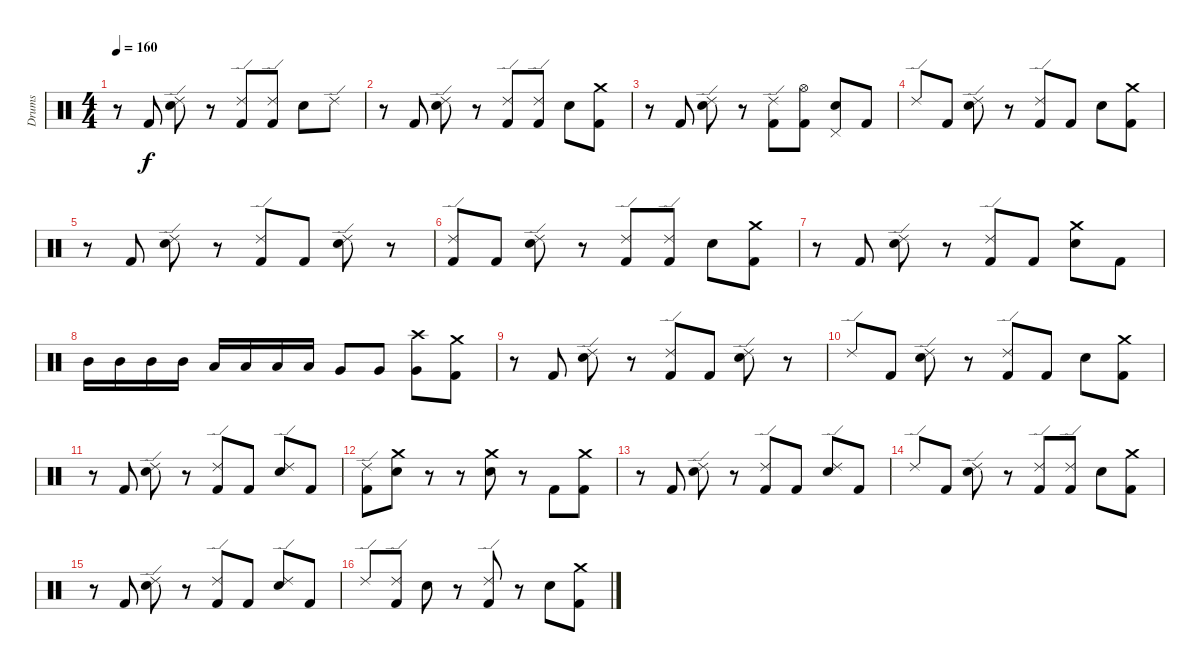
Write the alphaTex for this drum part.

\track ("Drums" "Drums") {instrument percussion}
\staff {score}
\articulation defaults
\ts (4 4)
\tempo 160
\clef neutral
\ks c
r.8{dy f} "Kick (hit) 2".8 ("Ride (edge) 2" "Snare (hit) 2").8 r.8 ("Ride (edge) 2" "Kick (hit) 2").8 ("Ride (edge) 2" "Kick (hit) 2").8 "Snare (hit) 2".8 "Ride (edge) 2".8 |
r.8 "Kick (hit) 2".8 ("Ride (edge) 2" "Snare (hit) 2").8 r.8 ("Ride (edge) 2" "Kick (hit) 2").8 ("Ride (edge) 2" "Kick (hit) 2").8 "Snare (hit) 2".8 ("Crash medium (hit)" "Kick (hit) 2").8 |
r.8 "Kick (hit) 2".8 ("Ride (edge) 2" "Snare (hit) 2").8 r.8 ("Ride (edge) 2" "Kick (hit) 2").8 ("Hi-Hat (open)" "Kick (hit) 2").8 ("Pedal Hi-Hat (hit)" "Snare (hit) 2").8 "Kick (hit) 2".8 |
"Ride (edge) 2".8 "Kick (hit) 2".8 ("Ride (edge) 2" "Snare (hit) 2").8 r.8 ("Ride (edge) 2" "Kick (hit) 2").8 "Kick (hit) 2".8 "Snare (hit) 2".8 ("Crash medium (hit)" "Kick (hit) 2").8 |
r.8 "Kick (hit) 2".8 ("Ride (edge) 2" "Snare (hit) 2").8 r.8 ("Ride (edge) 2" "Kick (hit) 2").8 "Kick (hit) 2".8 ("Ride (edge) 2" "Snare (hit) 2").8 r.8 |
("Ride (edge) 2" "Kick (hit) 2").8 "Kick (hit) 2".8 ("Ride (edge) 2" "Snare (hit) 2").8 r.8 ("Ride (edge) 2" "Kick (hit) 2").8 ("Ride (edge) 2" "Kick (hit) 2").8 "Snare (hit) 2".8 ("Crash medium (hit)" "Kick (hit) 2").8 |
r.8 "Kick (hit) 2".8 ("Ride (edge) 2" "Snare (hit) 2").8 r.8 ("Ride (edge) 2" "Kick (hit) 2").8 "Kick (hit) 2".8 ("Crash medium (hit)" "Snare (hit) 2").8 "Kick (hit) 2".8 |
"Mid Tom (hit)".16 "Mid Tom (hit)".16 "Mid Tom (hit)".16 "Mid Tom (hit)".16 "Low Tom (hit)".16 "Low Tom (hit)".16 "Low Tom (hit)".16 "Low Tom (hit)".16 "Very Low Tom (hit)".8 "Very Low Tom (hit)".8 ("Crash high (hit)" "Very Low Tom (hit)").8 ("Crash medium (hit)" "Kick (hit) 2").8 |
r.8 "Kick (hit) 2".8 ("Ride (edge) 2" "Snare (hit) 2").8 r.8 ("Ride (edge) 2" "Kick (hit) 2").8 "Kick (hit) 2".8 ("Ride (edge) 2" "Snare (hit) 2").8 r.8 |
"Ride (edge) 2".8 "Kick (hit) 2".8 ("Ride (edge) 2" "Snare (hit) 2").8 r.8 ("Ride (edge) 2" "Kick (hit) 2").8 "Kick (hit) 2".8 "Snare (hit) 2".8 ("Crash medium (hit)" "Kick (hit) 2").8 |
r.8 "Kick (hit) 2".8 ("Ride (edge) 2" "Snare (hit) 2").8 r.8 ("Ride (edge) 2" "Kick (hit) 2").8 "Kick (hit) 2".8 ("Ride (edge) 2" "Snare (hit) 2").8 "Kick (hit) 2".8 |
("Ride (edge) 2" "Kick (hit) 2").8 ("Crash medium (hit)" "Snare (hit) 2").8 r.8 r.8 ("Crash medium (hit)" "Snare (hit) 2").8 r.8 "Kick (hit) 2".8 ("Crash medium (hit)" "Kick (hit) 2").8 |
r.8 "Kick (hit) 2".8 ("Ride (edge) 2" "Snare (hit) 2").8 r.8 ("Ride (edge) 2" "Kick (hit) 2").8 "Kick (hit) 2".8 ("Ride (edge) 2" "Snare (hit) 2").8 "Kick (hit) 2".8 |
"Ride (edge) 2".8 "Kick (hit) 2".8 ("Ride (edge) 2" "Snare (hit) 2").8 r.8 ("Ride (edge) 2" "Kick (hit) 2").8 ("Ride (edge) 2" "Kick (hit) 2").8 "Snare (hit) 2".8 ("Crash medium (hit)" "Kick (hit) 2").8 |
r.8 "Kick (hit) 2".8 ("Ride (edge) 2" "Snare (hit) 2").8 r.8 ("Ride (edge) 2" "Kick (hit) 2").8 "Kick (hit) 2".8 ("Ride (edge) 2" "Snare (hit) 2").8 "Kick (hit) 2".8 |
"Ride (edge) 2".8 ("Ride (edge) 2" "Kick (hit) 2").8 "Snare (hit) 2".8 r.8 ("Ride (edge) 2" "Kick (hit) 2").8 r.8 "Snare (hit) 2".8 ("Crash medium (hit)" "Kick (hit) 2").8
